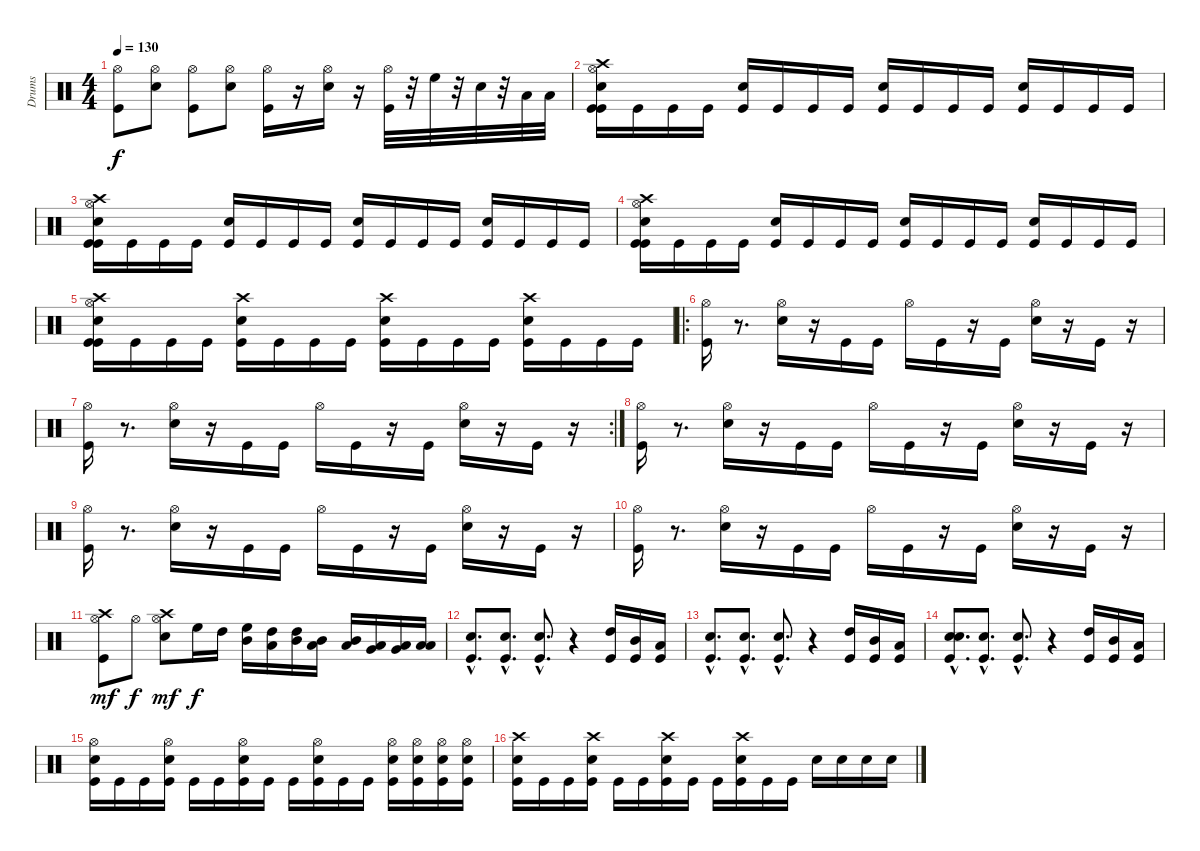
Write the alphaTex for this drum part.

\track ("Drums" "Drums") {instrument percussion}
\staff {score}
\articulation defaults
\ts (4 4)
\tempo 130
\clef neutral
\ks c
("Hi-Hat (open)" "Kick (hit)").8{dy f} ("Hi-Hat (open)" "Electric Snare (hit)").8 ("Hi-Hat (open)" "Kick (hit)").8 ("Hi-Hat (open)" "Electric Snare (hit)").8 ("Hi-Hat (open)" "Kick (hit)").16 r.16 ("Hi-Hat (open)" "Electric Snare (hit)").16 r.16 ("Hi-Hat (open)" "Kick (hit)").32 r.32 "High Floor Tom (hit)".32 r.32 "Electric Snare (hit)".32 r.32 "Low Tom (hit)".32 "Low Tom (hit)".32 |
("Hi-Hat (open)" "Kick (hit)" "Kick (hit)" "Crash high (hit)" "Electric Snare (hit)").16 "Kick (hit)".16 "Kick (hit)".16 "Kick (hit)".16 ("Electric Snare (hit)" "Kick (hit)").16 "Kick (hit)".16 "Kick (hit)".16 "Kick (hit)".16 ("Electric Snare (hit)" "Kick (hit)").16 "Kick (hit)".16 "Kick (hit)".16 "Kick (hit)".16 ("Electric Snare (hit)" "Kick (hit)").16 "Kick (hit)".16 "Kick (hit)".16 "Kick (hit)".16 |
("Hi-Hat (open)" "Kick (hit)" "Kick (hit)" "Crash high (hit)" "Electric Snare (hit)").16 "Kick (hit)".16 "Kick (hit)".16 "Kick (hit)".16 ("Electric Snare (hit)" "Kick (hit)").16 "Kick (hit)".16 "Kick (hit)".16 "Kick (hit)".16 ("Electric Snare (hit)" "Kick (hit)").16 "Kick (hit)".16 "Kick (hit)".16 "Kick (hit)".16 ("Electric Snare (hit)" "Kick (hit)").16 "Kick (hit)".16 "Kick (hit)".16 "Kick (hit)".16 |
("Hi-Hat (open)" "Kick (hit)" "Kick (hit)" "Crash high (hit)" "Electric Snare (hit)").16 "Kick (hit)".16 "Kick (hit)".16 "Kick (hit)".16 ("Electric Snare (hit)" "Kick (hit)").16 "Kick (hit)".16 "Kick (hit)".16 "Kick (hit)".16 ("Electric Snare (hit)" "Kick (hit)").16 "Kick (hit)".16 "Kick (hit)".16 "Kick (hit)".16 ("Electric Snare (hit)" "Kick (hit)").16 "Kick (hit)".16 "Kick (hit)".16 "Kick (hit)".16 |
("Hi-Hat (open)" "Kick (hit)" "Kick (hit)" "Crash high (hit)" "Electric Snare (hit)").16 "Kick (hit)".16 "Kick (hit)".16 "Kick (hit)".16 ("Electric Snare (hit)" "Kick (hit)" "Crash high (hit)").16 "Kick (hit)".16 "Kick (hit)".16 "Kick (hit)".16 ("Electric Snare (hit)" "Kick (hit)" "Crash high (hit)").16 "Kick (hit)".16 "Kick (hit)".16 "Kick (hit)".16 ("Electric Snare (hit)" "Kick (hit)" "Crash high (hit)").16 "Kick (hit)".16 "Kick (hit)".16 "Kick (hit)".16 |
\ro
("Hi-Hat (open)" "Kick (hit)").16 r.8{d} ("Hi-Hat (open)" "Electric Snare (hit)").16 r.16 "Kick (hit)".16 "Kick (hit)".16 "Hi-Hat (open)".16 "Kick (hit)".16 r.16 "Kick (hit)".16 ("Hi-Hat (open)" "Electric Snare (hit)").16 r.16 "Kick (hit)".16 r.16 |
\rc 2
("Hi-Hat (open)" "Kick (hit)").16 r.8{d} ("Hi-Hat (open)" "Electric Snare (hit)").16 r.16 "Kick (hit)".16 "Kick (hit)".16 "Hi-Hat (open)".16 "Kick (hit)".16 r.16 "Kick (hit)".16 ("Hi-Hat (open)" "Electric Snare (hit)").16 r.16 "Kick (hit)".16 r.16 |
("Hi-Hat (open)" "Kick (hit)").16 r.8{d} ("Hi-Hat (open)" "Electric Snare (hit)").16 r.16 "Kick (hit)".16 "Kick (hit)".16 "Hi-Hat (open)".16 "Kick (hit)".16 r.16 "Kick (hit)".16 ("Hi-Hat (open)" "Electric Snare (hit)").16 r.16 "Kick (hit)".16 r.16 |
("Hi-Hat (open)" "Kick (hit)").16 r.8{d} ("Hi-Hat (open)" "Electric Snare (hit)").16 r.16 "Kick (hit)".16 "Kick (hit)".16 "Hi-Hat (open)".16 "Kick (hit)".16 r.16 "Kick (hit)".16 ("Hi-Hat (open)" "Electric Snare (hit)").16 r.16 "Kick (hit)".16 r.16 |
("Hi-Hat (open)" "Kick (hit)").16 r.8{d} ("Hi-Hat (open)" "Electric Snare (hit)").16 r.16 "Kick (hit)".16 "Kick (hit)".16 "Hi-Hat (open)".16 "Kick (hit)".16 r.16 "Kick (hit)".16 ("Hi-Hat (open)" "Electric Snare (hit)").16 r.16 "Kick (hit)".16 r.16 |
("Hi-Hat (open)" "Kick (hit)" "Crash high (hit)").8{dy mf} "Hi-Hat (open)".8{dy f} ("Hi-Hat (open)" "Snare (hit) 2" "Crash high (hit)").8{dy mf} "High Floor Tom (hit)".16{dy f} "High Tom (hit)".16 ("High Floor Tom (hit)" "Mid Tom (hit)").16 ("High Tom (hit)" "Low Tom (hit)").16 ("Mid Tom (hit)" "High Tom (hit)").16 ("Low Tom (hit)" "Mid Tom (hit)").16 ("Mid Tom (hit)" "Low Tom (hit)").16 ("Low Tom (hit)" "Very Low Tom (hit)").16 ("Very Low Tom (hit)" "Low Floor Tom (hit)").16 ("Low Floor Tom (hit)" "Low Floor Tom (hit)").16 |
("Kick (hit)"{hac} "Electric Snare (hit)"{hac}).8{d} ("Kick (hit)"{hac} "Electric Snare (hit)"{hac}).8{d} ("Kick (hit)"{hac} "Electric Snare (hit)"{hac}).8{d} r.4 ("Kick (hit)" "High Tom (hit)").16 ("Kick (hit)" "Mid Tom (hit)").16 ("Kick (hit)" "Low Tom (hit)").16 |
("Kick (hit)"{hac} "Electric Snare (hit)"{hac}).8{d} ("Kick (hit)"{hac} "Electric Snare (hit)"{hac}).8{d} ("Kick (hit)"{hac} "Electric Snare (hit)"{hac}).8{d} r.4 ("Kick (hit)" "High Tom (hit)").16 ("Kick (hit)" "Mid Tom (hit)").16 ("Kick (hit)" "Low Tom (hit)").16 |
("Kick (hit)"{hac} "Electric Snare (hit)"{hac} "Electric Snare (hit)"{hac}).8{d} ("Kick (hit)"{hac} "Electric Snare (hit)"{hac}).8{d} ("Kick (hit)"{hac} "Electric Snare (hit)"{hac}).8{d} r.4 ("Kick (hit)" "High Tom (hit)").16 ("Kick (hit)" "Mid Tom (hit)").16 ("Kick (hit)" "Low Tom (hit)").16 |
("Kick (hit)" "Hi-Hat (open)" "Electric Snare (hit)").16 "Kick (hit)".16 "Kick (hit)".16 ("Kick (hit)" "Electric Snare (hit)" "Hi-Hat (open)").16 "Kick (hit)".16 "Kick (hit)".16 ("Kick (hit)" "Electric Snare (hit)" "Hi-Hat (open)").16 "Kick (hit)".16 "Kick (hit)".16 ("Kick (hit)" "Electric Snare (hit)" "Hi-Hat (open)").16 "Kick (hit)".16 "Kick (hit)".16 ("Kick (hit)" "Electric Snare (hit)" "Hi-Hat (open)").16 ("Kick (hit)" "Electric Snare (hit)" "Hi-Hat (open)").16 ("Kick (hit)" "Electric Snare (hit)" "Hi-Hat (open)").16 ("Kick (hit)" "Electric Snare (hit)" "Hi-Hat (open)").16 |
("Crash high (hit)" "Electric Snare (hit)" "Kick (hit)").16 "Kick (hit)".16 "Kick (hit)".16 ("Crash high (hit)" "Electric Snare (hit)" "Kick (hit)").16 "Kick (hit)".16 "Kick (hit)".16 ("Crash high (hit)" "Electric Snare (hit)" "Kick (hit)").16 "Kick (hit)".16 "Kick (hit)".16 ("Crash high (hit)" "Electric Snare (hit)" "Kick (hit)").16 "Kick (hit)".16 "Kick (hit)".16 "Electric Snare (hit)".16 "Electric Snare (hit)".16 "Electric Snare (hit)".16 "Electric Snare (hit)".16
